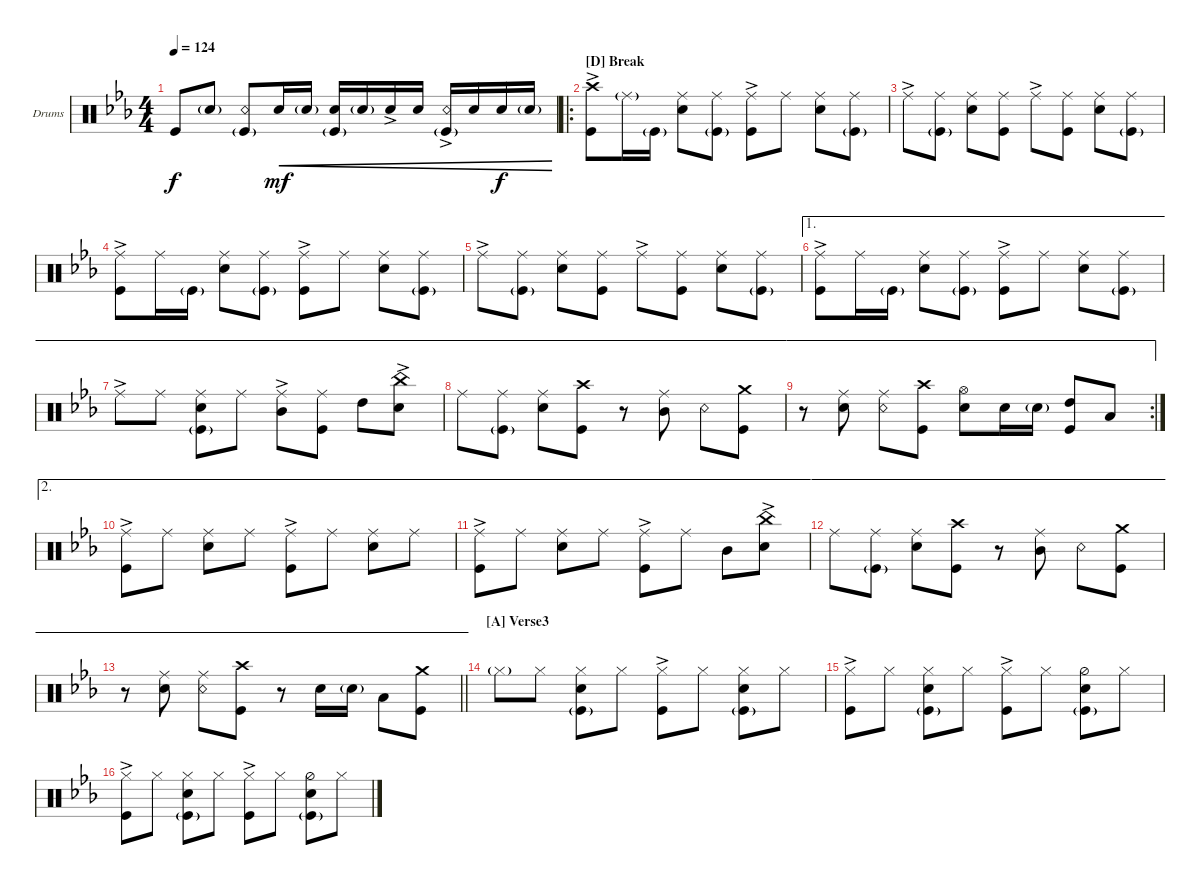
\bracketExtendMode groupsimilarinstruments
\firstSystemTrackNameOrientation horizontal
\otherSystemsTrackNameOrientation horizontal
\track ("Drumkit" "Drums") {instrument percussion}
\staff {score}
\articulation defaults
\ts (4 4)
\tempo 124
\clef neutral
\ks cminor "Kick (hit)".8{dy f} "Snare (hit) 2"{g}.8
("Snare (rim shot)" "Kick (hit)"{g}).8 "Snare (hit) 2".16{cre dy mf} "Snare (hit) 2"{g}.16{cre} ("Snare (hit) 2" "Kick (hit)"{g}).16{cre} "Snare (hit) 2"{g}.16{cre} "Snare (hit) 2"{ac}.16{cre} "Snare (hit) 2".16{cre} ("Snare (rim shot)"{ac} "Kick (hit)"{g}).16{cre} "Snare (hit) 2".16{cre} "Snare (hit) 2".16{cre dy f} "Snare (hit) 2"{g}.16{cre} |
\ro
\section ("D" "Break")
("Kick (hit)" "Crash high (hit)"{ac}).8 "Ride (middle)"{g}.16 "Kick (hit)"{g}.16 ("Snare (hit) 2" "Ride (middle)").8 ("Ride (middle)" "Kick (hit)"{g}).8 ("Kick (hit)" "Ride (middle)"{ac}).8 "Ride (middle)".8 ("Snare (hit) 2" "Ride (middle)").8 ("Ride (middle)" "Kick (hit)"{g}).8 |
"Ride (middle)"{ac}.8 ("Ride (middle)" "Kick (hit)"{g}).8 ("Snare (hit) 2" "Ride (middle)").8 ("Ride (middle)" "Kick (hit)").8 "Ride (middle)"{ac}.8 ("Ride (middle)" "Kick (hit)").8 ("Snare (hit) 2" "Ride (middle)").8 ("Ride (middle)" "Kick (hit)"{g}).8 |
("Kick (hit)" "Ride (middle)"{ac}).8 "Ride (middle)".16 "Kick (hit)"{g}.16 ("Snare (hit) 2" "Ride (middle)").8 ("Ride (middle)" "Kick (hit)"{g}).8 ("Kick (hit)" "Ride (middle)"{ac}).8 "Ride (middle)".8 ("Snare (hit) 2" "Ride (middle)").8 ("Ride (middle)" "Kick (hit)"{g}).8 |
"Ride (middle)"{ac}.8 ("Ride (middle)" "Kick (hit)"{g}).8 ("Snare (hit) 2" "Ride (middle)").8 ("Ride (middle)" "Kick (hit)").8 "Ride (middle)"{ac}.8 ("Ride (middle)" "Kick (hit)").8 ("Snare (hit) 2" "Ride (middle)").8 ("Ride (middle)" "Kick (hit)"{g}).8 |
\ae 1
("Kick (hit)" "Ride (middle)"{ac}).8 "Ride (middle)".16 "Kick (hit)"{g}.16 ("Snare (hit) 2" "Ride (middle)").8 ("Ride (middle)" "Kick (hit)"{g}).8 ("Kick (hit)" "Ride (middle)"{ac}).8 "Ride (middle)".8 ("Snare (hit) 2" "Ride (middle)").8 ("Ride (middle)" "Kick (hit)"{g}).8 |
\ae 1 "Ride (middle)"{ac}.8 "Ride (middle)".8
("Snare (hit) 2" "Ride (middle)" "Kick (hit)"{g}).8 "Ride (middle)".8 ("Ride (middle)"{ac} "Mid Tom (hit)").8 ("Ride (middle)" "Kick (hit)").8 "High Tom (hit)".8 ("Snare (hit) 2" "China (hit)"{ac}).8 |
\ae 1 "Ride (middle)".8
("Ride (middle)" "Kick (hit)"{g}).8 ("Ride (middle)" "Snare (hit) 2").8 ("Kick (hit)" "Crash high (hit)").8 r.8 ("Ride (middle)" "Mid Tom (hit)").8 "Snare (rim shot)".8 ("Kick (hit)" "Crash medium (hit)").8 |
\ae 1
\rc 2
r.8 ("Snare (hit) 2" "Ride (middle)").8 ("Snare (rim shot)" "Ride (middle)").8 ("Kick (hit)" "Crash high (hit)").8 ("Snare (hit) 2" "Hi-Hat (open)").8 "Snare (hit) 2".16 "Snare (hit) 2"{g}.16 ("Kick (hit)" "High Tom (hit)").8 "Low Tom (hit)".8 |
\ae 2
("Kick (hit)" "Ride (middle)"{ac}).8 "Ride (middle)".8 ("Snare (hit) 2" "Ride (middle)").8 "Ride (middle)".8 ("Kick (hit)" "Ride (middle)"{ac}).8 "Ride (middle)".8 ("Snare (hit) 2" "Ride (middle)").8 "Ride (middle)".8 |
\ae 2
("Kick (hit)" "Ride (middle)"{ac}).8 "Ride (middle)".8 ("Snare (hit) 2" "Ride (middle)").8 "Ride (middle)".8 ("Kick (hit)" "Ride (middle)"{ac}).8 "Ride (middle)".8 "Mid Tom (hit)".8 ("Snare (hit) 2" "China (hit)"{ac}).8 |
\ae 2 "Ride (middle)".8
("Ride (middle)" "Kick (hit)"{g}).8 ("Ride (middle)" "Snare (hit) 2").8 ("Kick (hit)" "Crash high (hit)").8 r.8 ("Ride (middle)" "Mid Tom (hit)").8 "Snare (rim shot)".8 ("Kick (hit)" "Crash medium (hit)").8 |
\ae 2
\barLineRight lightlight
r.8 ("Snare (hit) 2" "Ride (middle)").8 ("Snare (rim shot)" "Ride (middle)").8 ("Kick (hit)" "Crash high (hit)").8 r.8 "Snare (hit) 2".16 "Snare (hit) 2"{g}.16 "Low Tom (hit)".8 ("Kick (hit)" "Crash medium (hit)").8 |
\section ("A" "Verse3")
"Hi-Hat (closed)"{g}.8 "Hi-Hat (closed)".8 ("Snare (hit) 2" "Hi-Hat (closed)" "Kick (hit)"{g}).8 "Hi-Hat (closed)".8 ("Kick (hit)" "Hi-Hat (closed)"{ac}).8 "Hi-Hat (closed)".8 ("Snare (hit) 2" "Kick (hit)"{g} "Hi-Hat (closed)").8 "Hi-Hat (closed)".8 |
("Kick (hit)" "Hi-Hat (closed)"{ac}).8 "Hi-Hat (closed)".8 ("Snare (hit) 2" "Hi-Hat (closed)" "Kick (hit)"{g}).8 "Hi-Hat (closed)".8 ("Kick (hit)" "Hi-Hat (closed)"{ac}).8 "Hi-Hat (closed)".8 ("Snare (hit) 2" "Kick (hit)"{g} "Hi-Hat (half)").8 "Hi-Hat (closed)".8 |
("Kick (hit)" "Hi-Hat (closed)"{ac}).8 "Hi-Hat (closed)".8 ("Snare (hit) 2" "Hi-Hat (closed)" "Kick (hit)"{g}).8 "Hi-Hat (closed)".8 ("Kick (hit)" "Hi-Hat (closed)"{ac}).8 "Hi-Hat (closed)".8 ("Snare (hit) 2" "Kick (hit)"{g} "Hi-Hat (half)").8 "Hi-Hat (closed)".8
